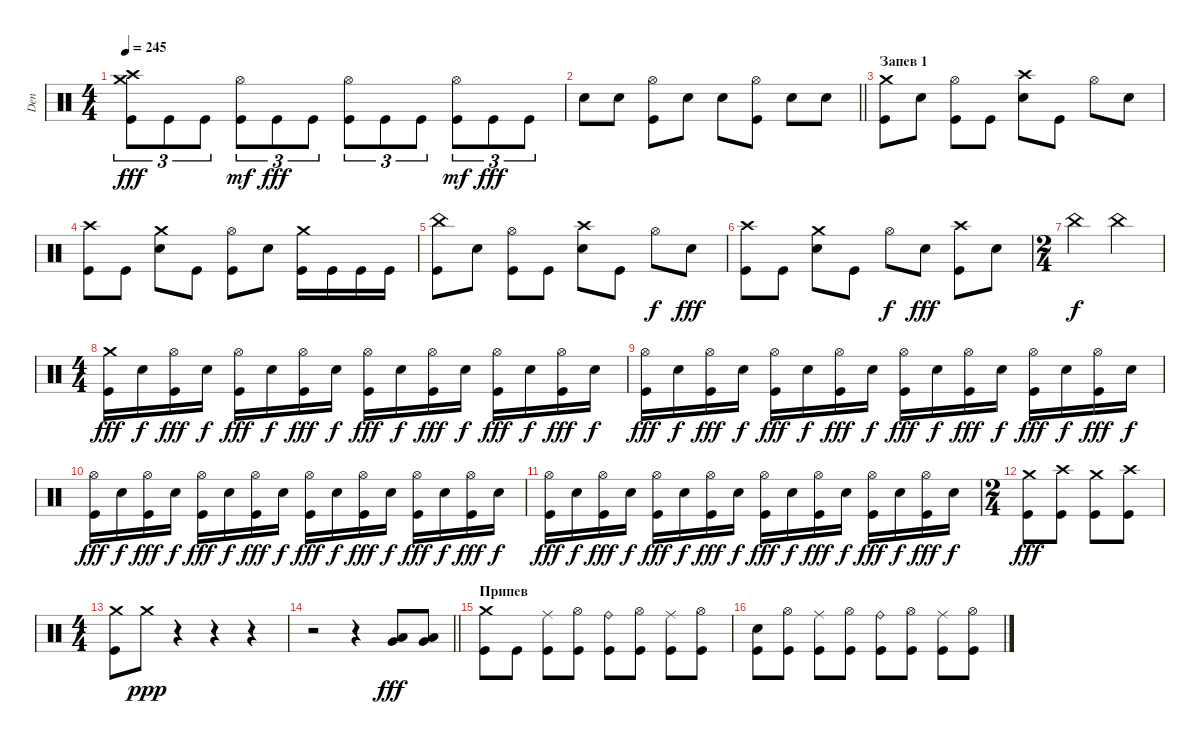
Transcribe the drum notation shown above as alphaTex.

\track ("Den" "Den") {instrument percussion}
\staff {score}
\articulation defaults
\ts (4 4)
\tempo 245
\clef neutral
\ks c
("Kick (hit)" "Crash high (hit)" "Crash medium (hit)").8{tu (3 2) dy fff} "Kick (hit)".8{tu (3 2)} "Kick (hit)".8{tu (3 2)} ("Kick (hit)" "Hi-Hat (open)").8{tu (3 2) dy mf} "Kick (hit)".8{tu (3 2) dy fff} "Kick (hit)".8{tu (3 2)} ("Kick (hit)" "Hi-Hat (open)").8{tu (3 2)} "Kick (hit)".8{tu (3 2)} "Kick (hit)".8{tu (3 2)} ("Kick (hit)" "Hi-Hat (open)").8{tu (3 2) dy mf} "Kick (hit)".8{tu (3 2) dy fff} "Kick (hit)".8{tu (3 2)} |
\barLineRight lightlight "Electric Snare (hit)".8 "Electric Snare (hit)".8
("Kick (hit)" "Hi-Hat (open)").8 "Electric Snare (hit)".8 "Electric Snare (hit)".8 ("Kick (hit)" "Hi-Hat (open)").8 "Electric Snare (hit)".8 "Electric Snare (hit)".8 |
\section ("" "Запев 1")
("Crash medium (hit)" "Kick (hit)").8 "Electric Snare (hit)".8 ("Kick (hit)" "Hi-Hat (open)").8 "Kick (hit)".8 ("Crash high (hit)" "Electric Snare (hit)").8 "Kick (hit)".8 "Hi-Hat (open)".8 "Electric Snare (hit)".8 |
("Kick (hit)" "Crash high (hit)").8 "Kick (hit)".8 ("Electric Snare (hit)" "Crash medium (hit)").8 "Kick (hit)".8 ("Hi-Hat (open)" "Kick (hit)").8 "Electric Snare (hit)".8 ("Kick (hit)" "Crash medium (hit)").16 "Kick (hit)".16 "Kick (hit)".16 "Kick (hit)".16 |
("China (hit)" "Kick (hit)").8 "Electric Snare (hit)".8 ("Kick (hit)" "Hi-Hat (open)").8 "Kick (hit)".8 ("Electric Snare (hit)" "Crash high (hit)").8 "Kick (hit)".8 "Hi-Hat (open)".8{dy f} "Electric Snare (hit)".8{dy fff} |
("Kick (hit)" "Crash high (hit)").8 "Kick (hit)".8 ("Electric Snare (hit)" "Crash medium (hit)").8 "Kick (hit)".8 "Hi-Hat (open)".8{dy f} "Electric Snare (hit)".8{dy fff} ("Kick (hit)" "Crash high (hit)").8 "Electric Snare (hit)".8 |
\ts (2 4)
"China (hit)".4{dy f} "China (hit)".4 |
\ts (4 4)
("Kick (hit)" "Crash medium (hit)").16{dy fff} "Electric Snare (hit)".16{dy f} ("Kick (hit)" "Hi-Hat (open)").16{dy fff} "Electric Snare (hit)".16{dy f} ("Kick (hit)" "Hi-Hat (open)").16{dy fff} "Electric Snare (hit)".16{dy f} ("Kick (hit)" "Hi-Hat (open)").16{dy fff} "Electric Snare (hit)".16{dy f} ("Kick (hit)" "Hi-Hat (open)").16{dy fff} "Electric Snare (hit)".16{dy f} ("Kick (hit)" "Hi-Hat (open)").16{dy fff} "Electric Snare (hit)".16{dy f} ("Kick (hit)" "Hi-Hat (open)").16{dy fff} "Electric Snare (hit)".16{dy f} ("Kick (hit)" "Hi-Hat (open)").16{dy fff} "Electric Snare (hit)".16{dy f} |
("Kick (hit)" "Hi-Hat (open)").16{dy fff} "Electric Snare (hit)".16{dy f} ("Kick (hit)" "Hi-Hat (open)").16{dy fff} "Electric Snare (hit)".16{dy f} ("Kick (hit)" "Hi-Hat (open)").16{dy fff} "Electric Snare (hit)".16{dy f} ("Kick (hit)" "Hi-Hat (open)").16{dy fff} "Electric Snare (hit)".16{dy f} ("Kick (hit)" "Hi-Hat (open)").16{dy fff} "Electric Snare (hit)".16{dy f} ("Kick (hit)" "Hi-Hat (open)").16{dy fff} "Electric Snare (hit)".16{dy f} ("Kick (hit)" "Hi-Hat (open)").16{dy fff} "Electric Snare (hit)".16{dy f} ("Kick (hit)" "Hi-Hat (open)").16{dy fff} "Electric Snare (hit)".16{dy f} |
("Kick (hit)" "Hi-Hat (open)").16{dy fff} "Electric Snare (hit)".16{dy f} ("Kick (hit)" "Hi-Hat (open)").16{dy fff} "Electric Snare (hit)".16{dy f} ("Kick (hit)" "Hi-Hat (open)").16{dy fff} "Electric Snare (hit)".16{dy f} ("Kick (hit)" "Hi-Hat (open)").16{dy fff} "Electric Snare (hit)".16{dy f} ("Kick (hit)" "Hi-Hat (open)").16{dy fff} "Electric Snare (hit)".16{dy f} ("Kick (hit)" "Hi-Hat (open)").16{dy fff} "Electric Snare (hit)".16{dy f} ("Kick (hit)" "Hi-Hat (open)").16{dy fff} "Electric Snare (hit)".16{dy f} ("Kick (hit)" "Hi-Hat (open)").16{dy fff} "Electric Snare (hit)".16{dy f} |
("Kick (hit)" "Hi-Hat (open)").16{dy fff} "Electric Snare (hit)".16{dy f} ("Kick (hit)" "Hi-Hat (open)").16{dy fff} "Electric Snare (hit)".16{dy f} ("Kick (hit)" "Hi-Hat (open)").16{dy fff} "Electric Snare (hit)".16{dy f} ("Kick (hit)" "Hi-Hat (open)").16{dy fff} "Electric Snare (hit)".16{dy f} ("Kick (hit)" "Hi-Hat (open)").16{dy fff} "Electric Snare (hit)".16{dy f} ("Kick (hit)" "Hi-Hat (open)").16{dy fff} "Electric Snare (hit)".16{dy f} ("Kick (hit)" "Hi-Hat (open)").16{dy fff} "Electric Snare (hit)".16{dy f} ("Kick (hit)" "Hi-Hat (open)").16{dy fff} "Electric Snare (hit)".16{dy f} |
\ts (2 4)
("Crash medium (hit)" "Kick (hit)").8{dy fff} ("Kick (hit)" "Crash high (hit)").8 ("Kick (hit)" "Crash medium (hit)").8 ("Kick (hit)" "Crash high (hit)").8 |
\ts (4 4)
("Crash medium (hit)" "Kick (hit)").8 "Crash medium (hit)".8{dy ppp} r.4 r.4 r.4 |
\barLineRight lightlight
r.2 r.4 ("Very Low Tom (hit)" "Low Tom (hit)").8{dy fff} ("Low Tom (hit)" "Very Low Tom (hit)").8 |
\section ("" "Припев")
("Kick (hit)" "Crash medium (hit)").8 "Kick (hit)".8 ("Kick (hit)" "Ride (middle)").8 ("Kick (hit)" "Hi-Hat (open)").8 ("Kick (hit)" "Ride (bell)").8 ("Kick (hit)" "Hi-Hat (open)").8 ("Kick (hit)" "Ride (middle)").8 ("Kick (hit)" "Hi-Hat (open)").8 |
("Kick (hit)" "Electric Snare (hit)").8 ("Kick (hit)" "Hi-Hat (open)").8 ("Ride (middle)" "Kick (hit)").8 ("Kick (hit)" "Hi-Hat (open)").8 ("Kick (hit)" "Ride (bell)").8 ("Kick (hit)" "Hi-Hat (open)").8 ("Kick (hit)" "Ride (middle)").8 ("Kick (hit)" "Hi-Hat (open)").8
